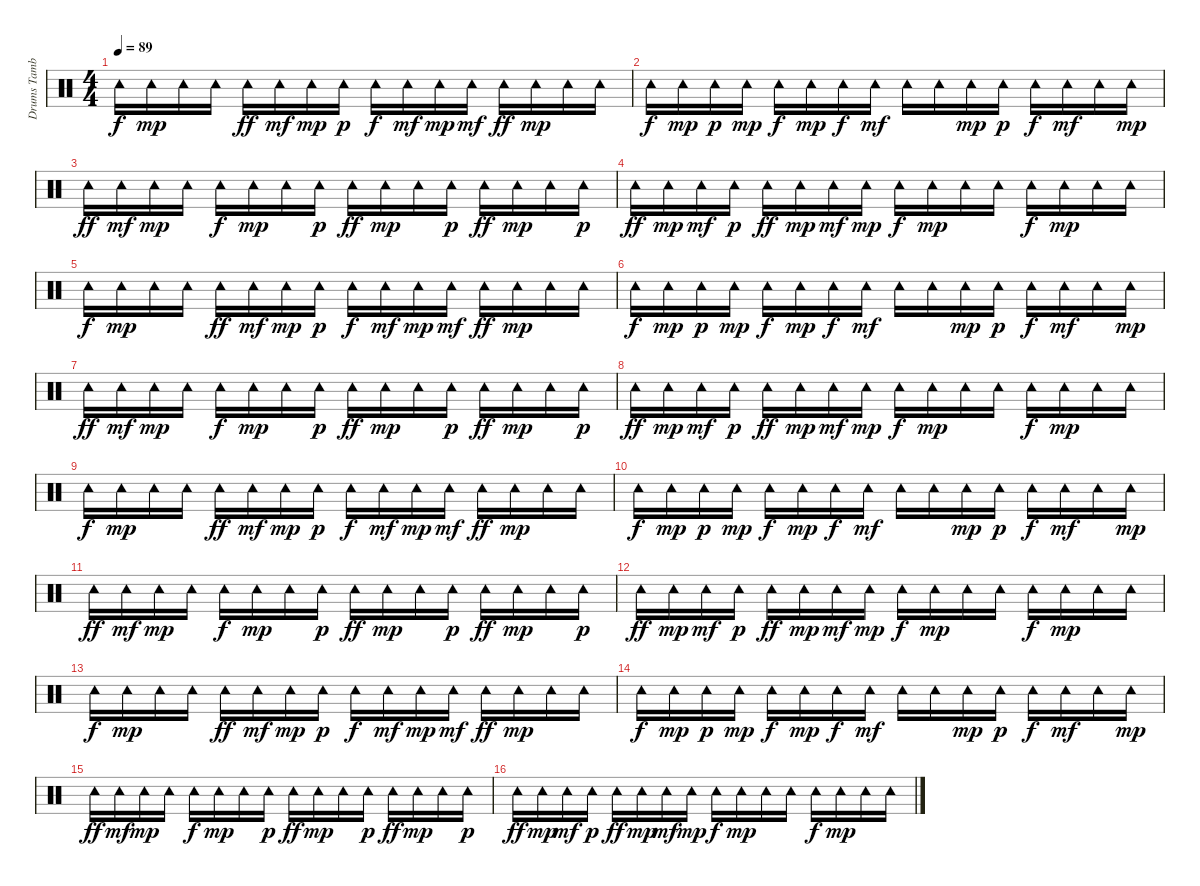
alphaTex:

\track ("Drums Tamburin" "Drums Tamb") {instrument percussion}
\staff {score}
\articulation defaults
\ts (4 4)
\tempo 89
\clef neutral
\ks c "Tambourine (hit)".16{dy f} "Tambourine (hit)".16{dy mp} "Tambourine (hit)".16 "Tambourine (hit)".16 "Tambourine (hit)".16{dy ff} "Tambourine (hit)".16{dy mf} "Tambourine (hit)".16{dy mp} "Tambourine (hit)".16{dy p} "Tambourine (hit)".16{dy f} "Tambourine (hit)".16{dy mf} "Tambourine (hit)".16{dy mp} "Tambourine (hit)".16{dy mf} "Tambourine (hit)".16{dy ff} "Tambourine (hit)".16{dy mp} "Tambourine (hit)".16 "Tambourine (hit)".16
|
"Tambourine (hit)".16{dy f} "Tambourine (hit)".16{dy mp} "Tambourine (hit)".16{dy p} "Tambourine (hit)".16{dy mp} "Tambourine (hit)".16{dy f} "Tambourine (hit)".16{dy mp} "Tambourine (hit)".16{dy f} "Tambourine (hit)".16{dy mf} "Tambourine (hit)".16 "Tambourine (hit)".16 "Tambourine (hit)".16{dy mp} "Tambourine (hit)".16{dy p} "Tambourine (hit)".16{dy f} "Tambourine (hit)".16{dy mf} "Tambourine (hit)".16 "Tambourine (hit)".16{dy mp} |
"Tambourine (hit)".16{dy ff} "Tambourine (hit)".16{dy mf} "Tambourine (hit)".16{dy mp} "Tambourine (hit)".16 "Tambourine (hit)".16{dy f} "Tambourine (hit)".16{dy mp} "Tambourine (hit)".16 "Tambourine (hit)".16{dy p} "Tambourine (hit)".16{dy ff} "Tambourine (hit)".16{dy mp} "Tambourine (hit)".16 "Tambourine (hit)".16{dy p} "Tambourine (hit)".16{dy ff} "Tambourine (hit)".16{dy mp} "Tambourine (hit)".16 "Tambourine (hit)".16{dy p} |
"Tambourine (hit)".16{dy ff} "Tambourine (hit)".16{dy mp} "Tambourine (hit)".16{dy mf} "Tambourine (hit)".16{dy p} "Tambourine (hit)".16{dy ff} "Tambourine (hit)".16{dy mp} "Tambourine (hit)".16{dy mf} "Tambourine (hit)".16{dy mp} "Tambourine (hit)".16{dy f} "Tambourine (hit)".16{dy mp} "Tambourine (hit)".16 "Tambourine (hit)".16 "Tambourine (hit)".16{dy f} "Tambourine (hit)".16{dy mp} "Tambourine (hit)".16 "Tambourine (hit)".16 |
"Tambourine (hit)".16{dy f} "Tambourine (hit)".16{dy mp} "Tambourine (hit)".16 "Tambourine (hit)".16 "Tambourine (hit)".16{dy ff} "Tambourine (hit)".16{dy mf} "Tambourine (hit)".16{dy mp} "Tambourine (hit)".16{dy p} "Tambourine (hit)".16{dy f} "Tambourine (hit)".16{dy mf} "Tambourine (hit)".16{dy mp} "Tambourine (hit)".16{dy mf} "Tambourine (hit)".16{dy ff} "Tambourine (hit)".16{dy mp} "Tambourine (hit)".16 "Tambourine (hit)".16 |
"Tambourine (hit)".16{dy f} "Tambourine (hit)".16{dy mp} "Tambourine (hit)".16{dy p} "Tambourine (hit)".16{dy mp} "Tambourine (hit)".16{dy f} "Tambourine (hit)".16{dy mp} "Tambourine (hit)".16{dy f} "Tambourine (hit)".16{dy mf} "Tambourine (hit)".16 "Tambourine (hit)".16 "Tambourine (hit)".16{dy mp} "Tambourine (hit)".16{dy p} "Tambourine (hit)".16{dy f} "Tambourine (hit)".16{dy mf} "Tambourine (hit)".16 "Tambourine (hit)".16{dy mp} |
"Tambourine (hit)".16{dy ff} "Tambourine (hit)".16{dy mf} "Tambourine (hit)".16{dy mp} "Tambourine (hit)".16 "Tambourine (hit)".16{dy f} "Tambourine (hit)".16{dy mp} "Tambourine (hit)".16 "Tambourine (hit)".16{dy p} "Tambourine (hit)".16{dy ff} "Tambourine (hit)".16{dy mp} "Tambourine (hit)".16 "Tambourine (hit)".16{dy p} "Tambourine (hit)".16{dy ff} "Tambourine (hit)".16{dy mp} "Tambourine (hit)".16 "Tambourine (hit)".16{dy p} |
"Tambourine (hit)".16{dy ff} "Tambourine (hit)".16{dy mp} "Tambourine (hit)".16{dy mf} "Tambourine (hit)".16{dy p} "Tambourine (hit)".16{dy ff} "Tambourine (hit)".16{dy mp} "Tambourine (hit)".16{dy mf} "Tambourine (hit)".16{dy mp} "Tambourine (hit)".16{dy f} "Tambourine (hit)".16{dy mp} "Tambourine (hit)".16 "Tambourine (hit)".16 "Tambourine (hit)".16{dy f} "Tambourine (hit)".16{dy mp} "Tambourine (hit)".16 "Tambourine (hit)".16 |
"Tambourine (hit)".16{dy f} "Tambourine (hit)".16{dy mp} "Tambourine (hit)".16 "Tambourine (hit)".16 "Tambourine (hit)".16{dy ff} "Tambourine (hit)".16{dy mf} "Tambourine (hit)".16{dy mp} "Tambourine (hit)".16{dy p} "Tambourine (hit)".16{dy f} "Tambourine (hit)".16{dy mf} "Tambourine (hit)".16{dy mp} "Tambourine (hit)".16{dy mf} "Tambourine (hit)".16{dy ff} "Tambourine (hit)".16{dy mp} "Tambourine (hit)".16 "Tambourine (hit)".16 |
"Tambourine (hit)".16{dy f} "Tambourine (hit)".16{dy mp} "Tambourine (hit)".16{dy p} "Tambourine (hit)".16{dy mp} "Tambourine (hit)".16{dy f} "Tambourine (hit)".16{dy mp} "Tambourine (hit)".16{dy f} "Tambourine (hit)".16{dy mf} "Tambourine (hit)".16 "Tambourine (hit)".16 "Tambourine (hit)".16{dy mp} "Tambourine (hit)".16{dy p} "Tambourine (hit)".16{dy f} "Tambourine (hit)".16{dy mf} "Tambourine (hit)".16 "Tambourine (hit)".16{dy mp} |
"Tambourine (hit)".16{dy ff} "Tambourine (hit)".16{dy mf} "Tambourine (hit)".16{dy mp} "Tambourine (hit)".16 "Tambourine (hit)".16{dy f} "Tambourine (hit)".16{dy mp} "Tambourine (hit)".16 "Tambourine (hit)".16{dy p} "Tambourine (hit)".16{dy ff} "Tambourine (hit)".16{dy mp} "Tambourine (hit)".16 "Tambourine (hit)".16{dy p} "Tambourine (hit)".16{dy ff} "Tambourine (hit)".16{dy mp} "Tambourine (hit)".16 "Tambourine (hit)".16{dy p} |
"Tambourine (hit)".16{dy ff} "Tambourine (hit)".16{dy mp} "Tambourine (hit)".16{dy mf} "Tambourine (hit)".16{dy p} "Tambourine (hit)".16{dy ff} "Tambourine (hit)".16{dy mp} "Tambourine (hit)".16{dy mf} "Tambourine (hit)".16{dy mp} "Tambourine (hit)".16{dy f} "Tambourine (hit)".16{dy mp} "Tambourine (hit)".16 "Tambourine (hit)".16 "Tambourine (hit)".16{dy f} "Tambourine (hit)".16{dy mp} "Tambourine (hit)".16 "Tambourine (hit)".16 |
"Tambourine (hit)".16{dy f} "Tambourine (hit)".16{dy mp} "Tambourine (hit)".16 "Tambourine (hit)".16 "Tambourine (hit)".16{dy ff} "Tambourine (hit)".16{dy mf} "Tambourine (hit)".16{dy mp} "Tambourine (hit)".16{dy p} "Tambourine (hit)".16{dy f} "Tambourine (hit)".16{dy mf} "Tambourine (hit)".16{dy mp} "Tambourine (hit)".16{dy mf} "Tambourine (hit)".16{dy ff} "Tambourine (hit)".16{dy mp} "Tambourine (hit)".16 "Tambourine (hit)".16 |
"Tambourine (hit)".16{dy f} "Tambourine (hit)".16{dy mp} "Tambourine (hit)".16{dy p} "Tambourine (hit)".16{dy mp} "Tambourine (hit)".16{dy f} "Tambourine (hit)".16{dy mp} "Tambourine (hit)".16{dy f} "Tambourine (hit)".16{dy mf} "Tambourine (hit)".16 "Tambourine (hit)".16 "Tambourine (hit)".16{dy mp} "Tambourine (hit)".16{dy p} "Tambourine (hit)".16{dy f} "Tambourine (hit)".16{dy mf} "Tambourine (hit)".16 "Tambourine (hit)".16{dy mp} |
"Tambourine (hit)".16{dy ff} "Tambourine (hit)".16{dy mf} "Tambourine (hit)".16{dy mp} "Tambourine (hit)".16 "Tambourine (hit)".16{dy f} "Tambourine (hit)".16{dy mp} "Tambourine (hit)".16 "Tambourine (hit)".16{dy p} "Tambourine (hit)".16{dy ff} "Tambourine (hit)".16{dy mp} "Tambourine (hit)".16 "Tambourine (hit)".16{dy p} "Tambourine (hit)".16{dy ff} "Tambourine (hit)".16{dy mp} "Tambourine (hit)".16 "Tambourine (hit)".16{dy p} |
"Tambourine (hit)".16{dy ff} "Tambourine (hit)".16{dy mp} "Tambourine (hit)".16{dy mf} "Tambourine (hit)".16{dy p} "Tambourine (hit)".16{dy ff} "Tambourine (hit)".16{dy mp} "Tambourine (hit)".16{dy mf} "Tambourine (hit)".16{dy mp} "Tambourine (hit)".16{dy f} "Tambourine (hit)".16{dy mp} "Tambourine (hit)".16 "Tambourine (hit)".16 "Tambourine (hit)".16{dy f} "Tambourine (hit)".16{dy mp} "Tambourine (hit)".16 "Tambourine (hit)".16
